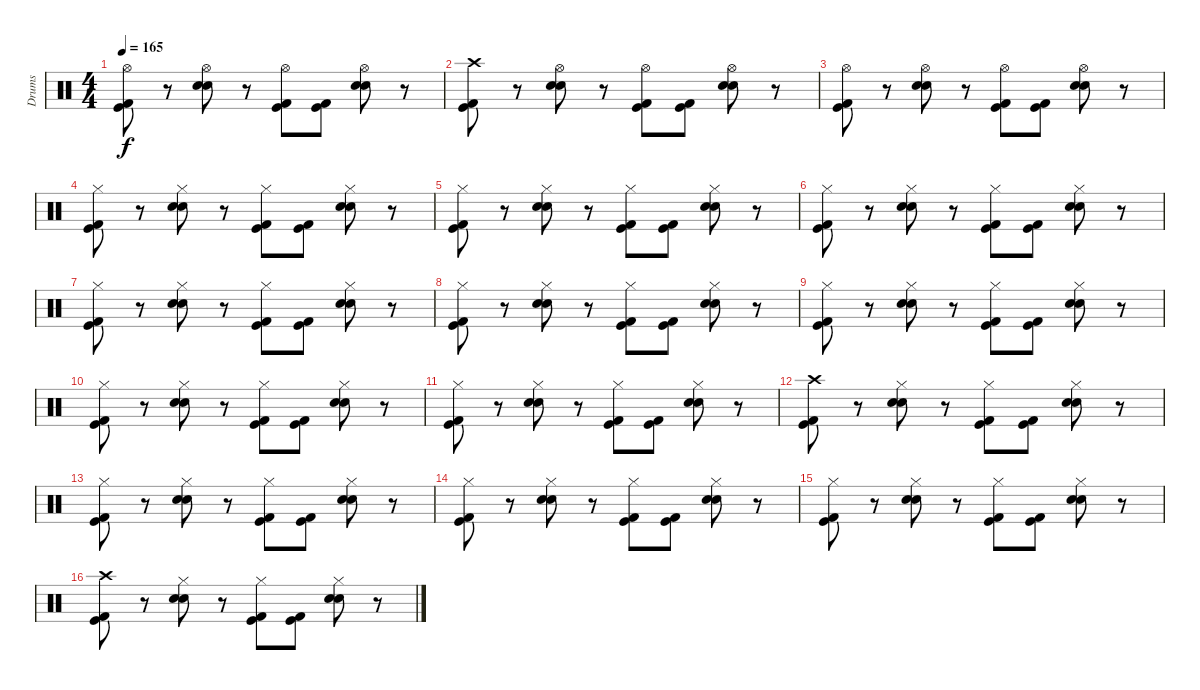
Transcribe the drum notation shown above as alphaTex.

\track ("Drums" "Drums") {instrument percussion}
\staff {score}
\articulation defaults
\ts (4 4)
\tempo 165
\clef neutral
\ks c
("Hi-Hat (open)" "Kick (hit) 2" "Kick (hit)").8{dy f} r.8 ("Hi-Hat (open)" "Electric Snare (hit)" "Snare (hit) 2").8 r.8 ("Hi-Hat (open)" "Kick (hit) 2" "Kick (hit)").8 ("Kick (hit) 2" "Kick (hit)").8 ("Hi-Hat (open)" "Electric Snare (hit)" "Snare (hit) 2").8 r.8 |
("Crash high (hit)" "Kick (hit) 2" "Kick (hit)").8 r.8 ("Hi-Hat (open)" "Electric Snare (hit)" "Snare (hit) 2").8 r.8 ("Hi-Hat (open)" "Kick (hit) 2" "Kick (hit)").8 ("Kick (hit) 2" "Kick (hit)").8 ("Hi-Hat (open)" "Electric Snare (hit)" "Snare (hit) 2").8 r.8 |
("Hi-Hat (open)" "Kick (hit) 2" "Kick (hit)").8 r.8 ("Hi-Hat (open)" "Electric Snare (hit)" "Snare (hit) 2").8 r.8 ("Hi-Hat (open)" "Kick (hit) 2" "Kick (hit)").8 ("Kick (hit) 2" "Kick (hit)").8 ("Hi-Hat (open)" "Electric Snare (hit)" "Snare (hit) 2").8 r.8 |
("Hi-Hat (closed)" "Kick (hit) 2" "Kick (hit)").8 r.8 ("Hi-Hat (closed)" "Electric Snare (hit)" "Snare (hit) 2").8 r.8 ("Hi-Hat (closed)" "Kick (hit) 2" "Kick (hit)").8 ("Kick (hit) 2" "Kick (hit)").8 ("Hi-Hat (closed)" "Electric Snare (hit)" "Snare (hit) 2").8 r.8 |
("Hi-Hat (closed)" "Kick (hit) 2" "Kick (hit)").8 r.8 ("Hi-Hat (closed)" "Electric Snare (hit)" "Snare (hit) 2").8 r.8 ("Hi-Hat (closed)" "Kick (hit) 2" "Kick (hit)").8 ("Kick (hit) 2" "Kick (hit)").8 ("Hi-Hat (closed)" "Electric Snare (hit)" "Snare (hit) 2").8 r.8 |
("Hi-Hat (closed)" "Kick (hit) 2" "Kick (hit)").8 r.8 ("Hi-Hat (closed)" "Electric Snare (hit)" "Snare (hit) 2").8 r.8 ("Hi-Hat (closed)" "Kick (hit) 2" "Kick (hit)").8 ("Kick (hit) 2" "Kick (hit)").8 ("Hi-Hat (closed)" "Electric Snare (hit)" "Snare (hit) 2").8 r.8 |
("Hi-Hat (closed)" "Kick (hit) 2" "Kick (hit)").8 r.8 ("Hi-Hat (closed)" "Electric Snare (hit)" "Snare (hit) 2").8 r.8 ("Hi-Hat (closed)" "Kick (hit) 2" "Kick (hit)").8 ("Kick (hit) 2" "Kick (hit)").8 ("Hi-Hat (closed)" "Electric Snare (hit)" "Snare (hit) 2").8 r.8 |
("Hi-Hat (closed)" "Kick (hit) 2" "Kick (hit)").8 r.8 ("Hi-Hat (closed)" "Electric Snare (hit)" "Snare (hit) 2").8 r.8 ("Hi-Hat (closed)" "Kick (hit) 2" "Kick (hit)").8 ("Kick (hit) 2" "Kick (hit)").8 ("Hi-Hat (closed)" "Electric Snare (hit)" "Snare (hit) 2").8 r.8 |
("Hi-Hat (closed)" "Kick (hit) 2" "Kick (hit)").8 r.8 ("Hi-Hat (closed)" "Electric Snare (hit)" "Snare (hit) 2").8 r.8 ("Hi-Hat (closed)" "Kick (hit) 2" "Kick (hit)").8 ("Kick (hit) 2" "Kick (hit)").8 ("Hi-Hat (closed)" "Electric Snare (hit)" "Snare (hit) 2").8 r.8 |
("Hi-Hat (closed)" "Kick (hit) 2" "Kick (hit)").8 r.8 ("Hi-Hat (closed)" "Electric Snare (hit)" "Snare (hit) 2").8 r.8 ("Hi-Hat (closed)" "Kick (hit) 2" "Kick (hit)").8 ("Kick (hit) 2" "Kick (hit)").8 ("Hi-Hat (closed)" "Electric Snare (hit)" "Snare (hit) 2").8 r.8 |
("Hi-Hat (closed)" "Kick (hit) 2" "Kick (hit)").8 r.8 ("Hi-Hat (closed)" "Electric Snare (hit)" "Snare (hit) 2").8 r.8 ("Hi-Hat (closed)" "Kick (hit) 2" "Kick (hit)").8 ("Kick (hit) 2" "Kick (hit)").8 ("Hi-Hat (closed)" "Electric Snare (hit)" "Snare (hit) 2").8 r.8 |
("Crash high (hit)" "Kick (hit) 2" "Kick (hit)").8 r.8 ("Hi-Hat (closed)" "Electric Snare (hit)" "Snare (hit) 2").8 r.8 ("Hi-Hat (closed)" "Kick (hit) 2" "Kick (hit)").8 ("Kick (hit) 2" "Kick (hit)").8 ("Hi-Hat (closed)" "Electric Snare (hit)" "Snare (hit) 2").8 r.8 |
("Hi-Hat (closed)" "Kick (hit) 2" "Kick (hit)").8 r.8 ("Hi-Hat (closed)" "Electric Snare (hit)" "Snare (hit) 2").8 r.8 ("Hi-Hat (closed)" "Kick (hit) 2" "Kick (hit)").8 ("Kick (hit) 2" "Kick (hit)").8 ("Hi-Hat (closed)" "Electric Snare (hit)" "Snare (hit) 2").8 r.8 |
("Hi-Hat (closed)" "Kick (hit) 2" "Kick (hit)").8 r.8 ("Hi-Hat (closed)" "Electric Snare (hit)" "Snare (hit) 2").8 r.8 ("Hi-Hat (closed)" "Kick (hit) 2" "Kick (hit)").8 ("Kick (hit) 2" "Kick (hit)").8 ("Hi-Hat (closed)" "Electric Snare (hit)" "Snare (hit) 2").8 r.8 |
("Hi-Hat (closed)" "Kick (hit) 2" "Kick (hit)").8 r.8 ("Hi-Hat (closed)" "Electric Snare (hit)" "Snare (hit) 2").8 r.8 ("Hi-Hat (closed)" "Kick (hit) 2" "Kick (hit)").8 ("Kick (hit) 2" "Kick (hit)").8 ("Hi-Hat (closed)" "Electric Snare (hit)" "Snare (hit) 2").8 r.8 |
("Crash high (hit)" "Kick (hit) 2" "Kick (hit)").8 r.8 ("Hi-Hat (closed)" "Electric Snare (hit)" "Snare (hit) 2").8 r.8 ("Hi-Hat (closed)" "Kick (hit) 2" "Kick (hit)").8 ("Kick (hit) 2" "Kick (hit)").8 ("Hi-Hat (closed)" "Electric Snare (hit)" "Snare (hit) 2").8 r.8
